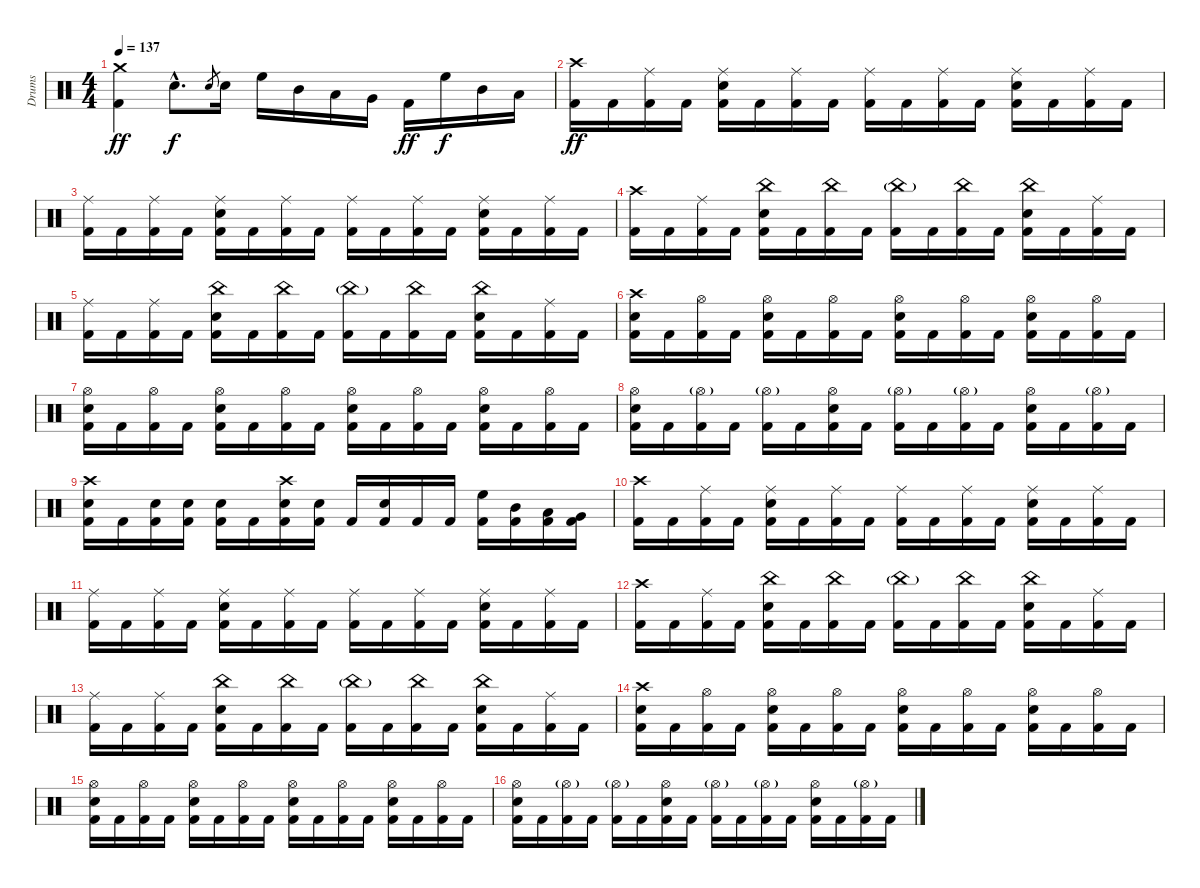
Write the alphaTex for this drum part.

\track ("Drums" "Drums") {instrument percussion}
\staff {score}
\articulation defaults
\ts (4 4)
\tempo 137
\clef neutral
\ks c
("Crash medium (hit)" "Kick (hit) 2").4{dy ff} "Electric Snare (hit)"{hac}.8{d dy f} "Electric Snare (hit)".8{gr} "Electric Snare (hit)".16 "High Floor Tom (hit)".16 "Mid Tom (hit)".16 "Low Tom (hit)".16 "Very Low Tom (hit)".16 "Kick (hit) 2".16{dy ff} "High Floor Tom (hit)".16{dy f} "Mid Tom (hit)".16 "Low Tom (hit)".16 |
("Crash high (hit)" "Kick (hit) 2").16{dy ff} "Kick (hit) 2".16 ("Ride (middle)" "Kick (hit) 2").16 "Kick (hit) 2".16 ("Ride (middle)" "Electric Snare (hit)" "Kick (hit) 2").16 "Kick (hit) 2".16 ("Ride (middle)" "Kick (hit) 2").16 "Kick (hit) 2".16 ("Ride (middle)" "Kick (hit) 2").16 "Kick (hit) 2".16 ("Ride (middle)" "Kick (hit) 2").16 "Kick (hit) 2".16 ("Ride (middle)" "Electric Snare (hit)" "Kick (hit) 2").16 "Kick (hit) 2".16 ("Ride (middle)" "Kick (hit) 2").16 "Kick (hit) 2".16 |
("Ride (middle)" "Kick (hit) 2").16 "Kick (hit) 2".16 ("Ride (middle)" "Kick (hit) 2").16 "Kick (hit) 2".16 ("Ride (middle)" "Electric Snare (hit)" "Kick (hit) 2").16 "Kick (hit) 2".16 ("Ride (middle)" "Kick (hit) 2").16 "Kick (hit) 2".16 ("Ride (middle)" "Kick (hit) 2").16 "Kick (hit) 2".16 ("Ride (middle)" "Kick (hit) 2").16 "Kick (hit) 2".16 ("Ride (middle)" "Electric Snare (hit)" "Kick (hit) 2").16 "Kick (hit) 2".16 ("Ride (middle)" "Kick (hit) 2").16 "Kick (hit) 2".16 |
("Crash high (hit)" "Kick (hit) 2").16 "Kick (hit) 2".16 ("Ride (middle)" "Kick (hit) 2").16 "Kick (hit) 2".16 ("China (hit)" "Electric Snare (hit)" "Kick (hit) 2").16 "Kick (hit) 2".16 ("China (hit)" "Kick (hit) 2").16 "Kick (hit) 2".16 ("China (hit)"{g} "Kick (hit) 2").16 "Kick (hit) 2".16 ("China (hit)" "Kick (hit) 2").16 "Kick (hit) 2".16 ("China (hit)" "Electric Snare (hit)" "Kick (hit) 2").16 "Kick (hit) 2".16 ("Ride (middle)" "Kick (hit) 2").16 "Kick (hit) 2".16 |
("Ride (middle)" "Kick (hit) 2").16 "Kick (hit) 2".16 ("Ride (middle)" "Kick (hit) 2").16 "Kick (hit) 2".16 ("China (hit)" "Electric Snare (hit)" "Kick (hit) 2").16 "Kick (hit) 2".16 ("China (hit)" "Kick (hit) 2").16 "Kick (hit) 2".16 ("China (hit)"{g} "Kick (hit) 2").16 "Kick (hit) 2".16 ("China (hit)" "Kick (hit) 2").16 "Kick (hit) 2".16 ("China (hit)" "Electric Snare (hit)" "Kick (hit) 2").16 "Kick (hit) 2".16 ("Ride (middle)" "Kick (hit) 2").16 "Kick (hit) 2".16 |
("Crash high (hit)" "Electric Snare (hit)" "Kick (hit) 2").16 "Kick (hit) 2".16 ("Hi-Hat (open)" "Kick (hit) 2").16 "Kick (hit) 2".16 ("Hi-Hat (open)" "Electric Snare (hit)" "Kick (hit) 2").16 "Kick (hit) 2".16 ("Hi-Hat (open)" "Kick (hit) 2").16 "Kick (hit) 2".16 ("Hi-Hat (open)" "Electric Snare (hit)" "Kick (hit) 2").16 "Kick (hit) 2".16 ("Hi-Hat (open)" "Kick (hit) 2").16 "Kick (hit) 2".16 ("Hi-Hat (open)" "Electric Snare (hit)" "Kick (hit) 2").16 "Kick (hit) 2".16 ("Hi-Hat (open)" "Kick (hit) 2").16 "Kick (hit) 2".16 |
("Hi-Hat (open)" "Electric Snare (hit)" "Kick (hit) 2").16 "Kick (hit) 2".16 ("Hi-Hat (open)" "Kick (hit) 2").16 "Kick (hit) 2".16 ("Hi-Hat (open)" "Electric Snare (hit)" "Kick (hit) 2").16 "Kick (hit) 2".16 ("Hi-Hat (open)" "Kick (hit) 2").16 "Kick (hit) 2".16 ("Hi-Hat (open)" "Electric Snare (hit)" "Kick (hit) 2").16 "Kick (hit) 2".16 ("Hi-Hat (open)" "Kick (hit) 2").16 "Kick (hit) 2".16 ("Hi-Hat (open)" "Electric Snare (hit)" "Kick (hit) 2").16 "Kick (hit) 2".16 ("Hi-Hat (open)" "Kick (hit) 2").16 "Kick (hit) 2".16 |
("Hi-Hat (open)" "Electric Snare (hit)" "Kick (hit) 2").16 "Kick (hit) 2".16 ("Hi-Hat (open)"{g} "Kick (hit) 2").16 "Kick (hit) 2".16 ("Hi-Hat (open)"{g} "Kick (hit) 2").16 "Kick (hit) 2".16 ("Hi-Hat (open)" "Electric Snare (hit)" "Kick (hit) 2").16 "Kick (hit) 2".16 ("Hi-Hat (open)"{g} "Kick (hit) 2").16 "Kick (hit) 2".16 ("Hi-Hat (open)"{g} "Kick (hit) 2").16 "Kick (hit) 2".16 ("Hi-Hat (open)" "Electric Snare (hit)" "Kick (hit) 2").16 "Kick (hit) 2".16 ("Hi-Hat (open)"{g} "Kick (hit) 2").16 "Kick (hit) 2".16 |
("Crash high (hit)" "Electric Snare (hit)" "Kick (hit) 2").16 "Kick (hit) 2".16 ("Electric Snare (hit)" "Kick (hit) 2").16 ("Electric Snare (hit)" "Kick (hit) 2").16 ("Electric Snare (hit)" "Kick (hit) 2").16 "Kick (hit) 2".16 ("Crash high (hit)" "Electric Snare (hit)" "Kick (hit) 2").16 ("Electric Snare (hit)" "Kick (hit) 2").16 "Kick (hit) 2".16 ("Electric Snare (hit)" "Kick (hit) 2").16 "Kick (hit) 2".16 "Kick (hit) 2".16 ("High Floor Tom (hit)" "Kick (hit) 2").16 ("Mid Tom (hit)" "Kick (hit) 2").16 ("Low Tom (hit)" "Kick (hit) 2").16 ("Very Low Tom (hit)" "Kick (hit) 2").16 |
("Crash high (hit)" "Kick (hit) 2").16 "Kick (hit) 2".16 ("Ride (middle)" "Kick (hit) 2").16 "Kick (hit) 2".16 ("Ride (middle)" "Electric Snare (hit)" "Kick (hit) 2").16 "Kick (hit) 2".16 ("Ride (middle)" "Kick (hit) 2").16 "Kick (hit) 2".16 ("Ride (middle)" "Kick (hit) 2").16 "Kick (hit) 2".16 ("Ride (middle)" "Kick (hit) 2").16 "Kick (hit) 2".16 ("Ride (middle)" "Electric Snare (hit)" "Kick (hit) 2").16 "Kick (hit) 2".16 ("Ride (middle)" "Kick (hit) 2").16 "Kick (hit) 2".16 |
("Ride (middle)" "Kick (hit) 2").16 "Kick (hit) 2".16 ("Ride (middle)" "Kick (hit) 2").16 "Kick (hit) 2".16 ("Ride (middle)" "Electric Snare (hit)" "Kick (hit) 2").16 "Kick (hit) 2".16 ("Ride (middle)" "Kick (hit) 2").16 "Kick (hit) 2".16 ("Ride (middle)" "Kick (hit) 2").16 "Kick (hit) 2".16 ("Ride (middle)" "Kick (hit) 2").16 "Kick (hit) 2".16 ("Ride (middle)" "Electric Snare (hit)" "Kick (hit) 2").16 "Kick (hit) 2".16 ("Ride (middle)" "Kick (hit) 2").16 "Kick (hit) 2".16 |
("Crash high (hit)" "Kick (hit) 2").16 "Kick (hit) 2".16 ("Ride (middle)" "Kick (hit) 2").16 "Kick (hit) 2".16 ("China (hit)" "Electric Snare (hit)" "Kick (hit) 2").16 "Kick (hit) 2".16 ("China (hit)" "Kick (hit) 2").16 "Kick (hit) 2".16 ("China (hit)"{g} "Kick (hit) 2").16 "Kick (hit) 2".16 ("China (hit)" "Kick (hit) 2").16 "Kick (hit) 2".16 ("China (hit)" "Electric Snare (hit)" "Kick (hit) 2").16 "Kick (hit) 2".16 ("Ride (middle)" "Kick (hit) 2").16 "Kick (hit) 2".16 |
("Ride (middle)" "Kick (hit) 2").16 "Kick (hit) 2".16 ("Ride (middle)" "Kick (hit) 2").16 "Kick (hit) 2".16 ("China (hit)" "Electric Snare (hit)" "Kick (hit) 2").16 "Kick (hit) 2".16 ("China (hit)" "Kick (hit) 2").16 "Kick (hit) 2".16 ("China (hit)"{g} "Kick (hit) 2").16 "Kick (hit) 2".16 ("China (hit)" "Kick (hit) 2").16 "Kick (hit) 2".16 ("China (hit)" "Electric Snare (hit)" "Kick (hit) 2").16 "Kick (hit) 2".16 ("Ride (middle)" "Kick (hit) 2").16 "Kick (hit) 2".16 |
("Crash high (hit)" "Electric Snare (hit)" "Kick (hit) 2").16 "Kick (hit) 2".16 ("Hi-Hat (open)" "Kick (hit) 2").16 "Kick (hit) 2".16 ("Hi-Hat (open)" "Electric Snare (hit)" "Kick (hit) 2").16 "Kick (hit) 2".16 ("Hi-Hat (open)" "Kick (hit) 2").16 "Kick (hit) 2".16 ("Hi-Hat (open)" "Electric Snare (hit)" "Kick (hit) 2").16 "Kick (hit) 2".16 ("Hi-Hat (open)" "Kick (hit) 2").16 "Kick (hit) 2".16 ("Hi-Hat (open)" "Electric Snare (hit)" "Kick (hit) 2").16 "Kick (hit) 2".16 ("Hi-Hat (open)" "Kick (hit) 2").16 "Kick (hit) 2".16 |
("Hi-Hat (open)" "Electric Snare (hit)" "Kick (hit) 2").16 "Kick (hit) 2".16 ("Hi-Hat (open)" "Kick (hit) 2").16 "Kick (hit) 2".16 ("Hi-Hat (open)" "Electric Snare (hit)" "Kick (hit) 2").16 "Kick (hit) 2".16 ("Hi-Hat (open)" "Kick (hit) 2").16 "Kick (hit) 2".16 ("Hi-Hat (open)" "Electric Snare (hit)" "Kick (hit) 2").16 "Kick (hit) 2".16 ("Hi-Hat (open)" "Kick (hit) 2").16 "Kick (hit) 2".16 ("Hi-Hat (open)" "Electric Snare (hit)" "Kick (hit) 2").16 "Kick (hit) 2".16 ("Hi-Hat (open)" "Kick (hit) 2").16 "Kick (hit) 2".16 |
("Hi-Hat (open)" "Electric Snare (hit)" "Kick (hit) 2").16 "Kick (hit) 2".16 ("Hi-Hat (open)"{g} "Kick (hit) 2").16 "Kick (hit) 2".16 ("Hi-Hat (open)"{g} "Kick (hit) 2").16 "Kick (hit) 2".16 ("Hi-Hat (open)" "Electric Snare (hit)" "Kick (hit) 2").16 "Kick (hit) 2".16 ("Hi-Hat (open)"{g} "Kick (hit) 2").16 "Kick (hit) 2".16 ("Hi-Hat (open)"{g} "Kick (hit) 2").16 "Kick (hit) 2".16 ("Hi-Hat (open)" "Electric Snare (hit)" "Kick (hit) 2").16 "Kick (hit) 2".16 ("Hi-Hat (open)"{g} "Kick (hit) 2").16 "Kick (hit) 2".16
